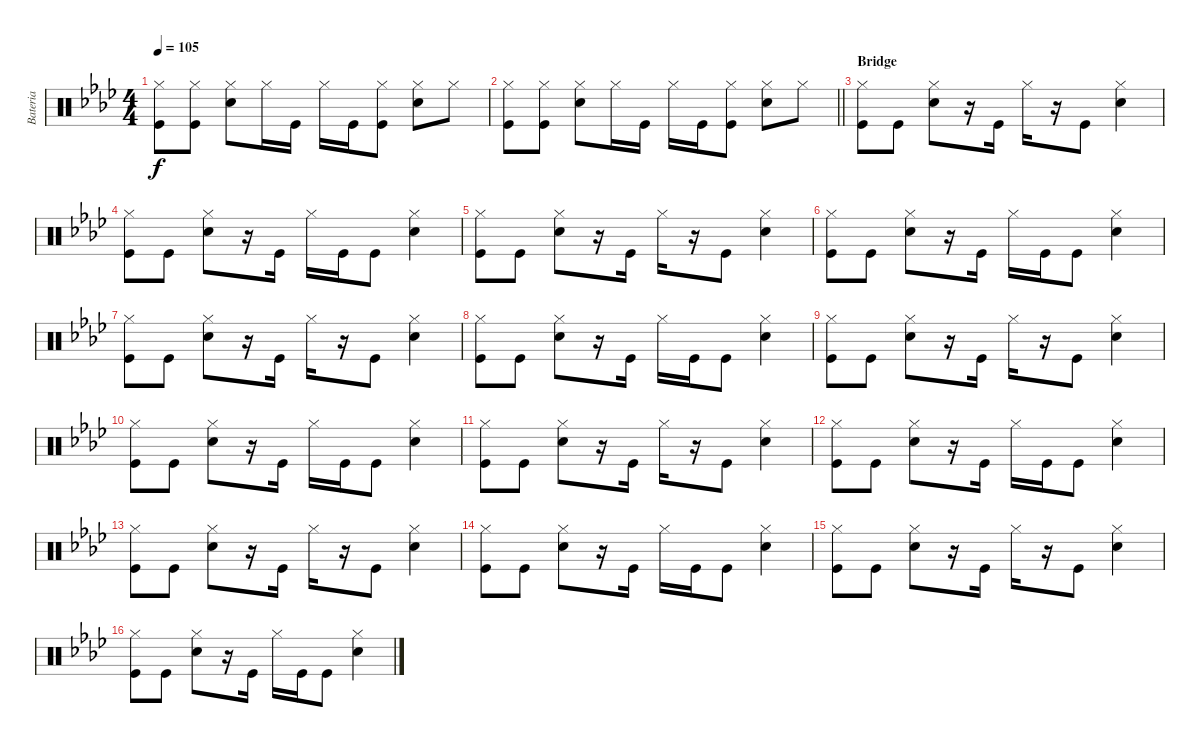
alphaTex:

\track ("Bateria" "Bateria") {instrument percussion}
\staff {score}
\articulation defaults
\ts (4 4)
\tempo 105
\clef neutral
\ks fminor
("Hi-Hat (closed)" "Kick (hit)").8{dy f} ("Hi-Hat (closed)" "Kick (hit)").8 ("Hi-Hat (closed)" "Electric Snare (hit)").8 "Hi-Hat (closed)".16 "Kick (hit)".16 "Hi-Hat (closed)".16 "Kick (hit)".16 ("Hi-Hat (closed)" "Kick (hit)").8 ("Hi-Hat (closed)" "Electric Snare (hit)").8 "Hi-Hat (closed)".8 |
\barLineRight lightlight
("Hi-Hat (closed)" "Kick (hit)").8 ("Hi-Hat (closed)" "Kick (hit)").8 ("Hi-Hat (closed)" "Electric Snare (hit)").8 "Hi-Hat (closed)".16 "Kick (hit)".16 "Hi-Hat (closed)".16 "Kick (hit)".16 ("Hi-Hat (closed)" "Kick (hit)").8 ("Hi-Hat (closed)" "Electric Snare (hit)").8 "Hi-Hat (closed)".8 |
\section ("" "Bridge")
("Hi-Hat (closed)" "Kick (hit)").8 "Kick (hit)".8 ("Hi-Hat (closed)" "Electric Snare (hit)").8 r.16 "Kick (hit)".16 "Hi-Hat (closed)".16 r.16 "Kick (hit)".8 ("Hi-Hat (closed)" "Electric Snare (hit)").4 |
("Hi-Hat (closed)" "Kick (hit)").8 "Kick (hit)".8 ("Hi-Hat (closed)" "Electric Snare (hit)").8 r.16 "Kick (hit)".16 "Hi-Hat (closed)".16 "Kick (hit)".16 "Kick (hit)".8 ("Hi-Hat (closed)" "Electric Snare (hit)").4 |
("Hi-Hat (closed)" "Kick (hit)").8 "Kick (hit)".8 ("Hi-Hat (closed)" "Electric Snare (hit)").8 r.16 "Kick (hit)".16 "Hi-Hat (closed)".16 r.16 "Kick (hit)".8 ("Hi-Hat (closed)" "Electric Snare (hit)").4 |
("Hi-Hat (closed)" "Kick (hit)").8 "Kick (hit)".8 ("Hi-Hat (closed)" "Electric Snare (hit)").8 r.16 "Kick (hit)".16 "Hi-Hat (closed)".16 "Kick (hit)".16 "Kick (hit)".8 ("Hi-Hat (closed)" "Electric Snare (hit)").4 |
("Hi-Hat (closed)" "Kick (hit)").8 "Kick (hit)".8 ("Hi-Hat (closed)" "Electric Snare (hit)").8 r.16 "Kick (hit)".16 "Hi-Hat (closed)".16 r.16 "Kick (hit)".8 ("Hi-Hat (closed)" "Electric Snare (hit)").4 |
("Hi-Hat (closed)" "Kick (hit)").8 "Kick (hit)".8 ("Hi-Hat (closed)" "Electric Snare (hit)").8 r.16 "Kick (hit)".16 "Hi-Hat (closed)".16 "Kick (hit)".16 "Kick (hit)".8 ("Hi-Hat (closed)" "Electric Snare (hit)").4 |
("Hi-Hat (closed)" "Kick (hit)").8 "Kick (hit)".8 ("Hi-Hat (closed)" "Electric Snare (hit)").8 r.16 "Kick (hit)".16 "Hi-Hat (closed)".16 r.16 "Kick (hit)".8 ("Hi-Hat (closed)" "Electric Snare (hit)").4 |
("Hi-Hat (closed)" "Kick (hit)").8 "Kick (hit)".8 ("Hi-Hat (closed)" "Electric Snare (hit)").8 r.16 "Kick (hit)".16 "Hi-Hat (closed)".16 "Kick (hit)".16 "Kick (hit)".8 ("Hi-Hat (closed)" "Electric Snare (hit)").4 |
("Hi-Hat (closed)" "Kick (hit)").8 "Kick (hit)".8 ("Hi-Hat (closed)" "Electric Snare (hit)").8 r.16 "Kick (hit)".16 "Hi-Hat (closed)".16 r.16 "Kick (hit)".8 ("Hi-Hat (closed)" "Electric Snare (hit)").4 |
("Hi-Hat (closed)" "Kick (hit)").8 "Kick (hit)".8 ("Hi-Hat (closed)" "Electric Snare (hit)").8 r.16 "Kick (hit)".16 "Hi-Hat (closed)".16 "Kick (hit)".16 "Kick (hit)".8 ("Hi-Hat (closed)" "Electric Snare (hit)").4 |
("Hi-Hat (closed)" "Kick (hit)").8 "Kick (hit)".8 ("Hi-Hat (closed)" "Electric Snare (hit)").8 r.16 "Kick (hit)".16 "Hi-Hat (closed)".16 r.16 "Kick (hit)".8 ("Hi-Hat (closed)" "Electric Snare (hit)").4 |
("Hi-Hat (closed)" "Kick (hit)").8 "Kick (hit)".8 ("Hi-Hat (closed)" "Electric Snare (hit)").8 r.16 "Kick (hit)".16 "Hi-Hat (closed)".16 "Kick (hit)".16 "Kick (hit)".8 ("Hi-Hat (closed)" "Electric Snare (hit)").4 |
("Hi-Hat (closed)" "Kick (hit)").8 "Kick (hit)".8 ("Hi-Hat (closed)" "Electric Snare (hit)").8 r.16 "Kick (hit)".16 "Hi-Hat (closed)".16 r.16 "Kick (hit)".8 ("Hi-Hat (closed)" "Electric Snare (hit)").4 |
("Hi-Hat (closed)" "Kick (hit)").8 "Kick (hit)".8 ("Hi-Hat (closed)" "Electric Snare (hit)").8 r.16 "Kick (hit)".16 "Hi-Hat (closed)".16 "Kick (hit)".16 "Kick (hit)".8 ("Hi-Hat (closed)" "Electric Snare (hit)").4
